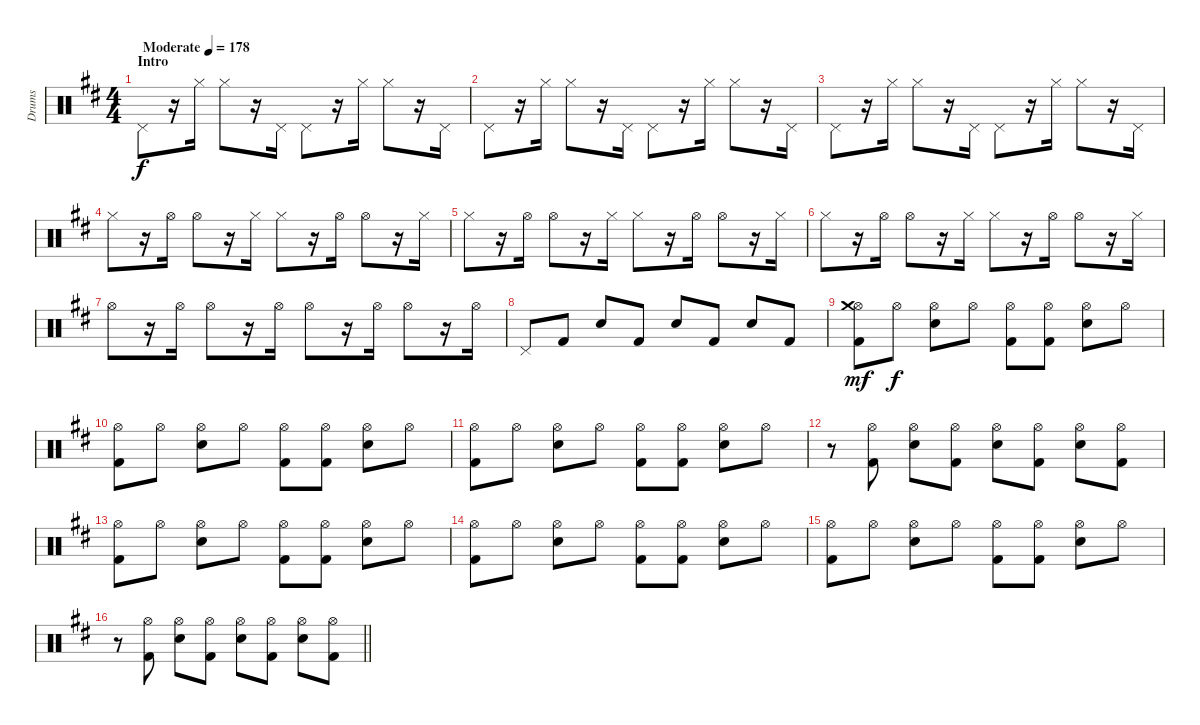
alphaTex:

\track ("Drums" "Drums") {instrument percussion}
\staff {score}
\articulation defaults
\ts (4 4)
\section ("" "Intro")
\tempo (178 "Moderate")
\clef neutral
\ks bminor "Pedal Hi-Hat (hit)".8{dy f}
r.16 "Hi-Hat (closed)".16 "Hi-Hat (closed)".8 r.16 "Pedal Hi-Hat (hit)".16 "Pedal Hi-Hat (hit)".8 r.16 "Hi-Hat (closed)".16 "Hi-Hat (closed)".8 r.16 "Pedal Hi-Hat (hit)".16 |
"Pedal Hi-Hat (hit)".8 r.16 "Hi-Hat (closed)".16 "Hi-Hat (closed)".8 r.16 "Pedal Hi-Hat (hit)".16 "Pedal Hi-Hat (hit)".8 r.16 "Hi-Hat (closed)".16 "Hi-Hat (closed)".8 r.16 "Pedal Hi-Hat (hit)".16 |
"Pedal Hi-Hat (hit)".8 r.16 "Hi-Hat (closed)".16 "Hi-Hat (closed)".8 r.16 "Pedal Hi-Hat (hit)".16 "Pedal Hi-Hat (hit)".8 r.16 "Hi-Hat (closed)".16 "Hi-Hat (closed)".8 r.16 "Pedal Hi-Hat (hit)".16 |
"Hi-Hat (closed)".8 r.16 "Hi-Hat (open)".16 "Hi-Hat (open)".8 r.16 "Hi-Hat (closed)".16 "Hi-Hat (closed)".8 r.16 "Hi-Hat (open)".16 "Hi-Hat (open)".8 r.16 "Hi-Hat (closed)".16 |
"Hi-Hat (closed)".8 r.16 "Hi-Hat (open)".16 "Hi-Hat (open)".8 r.16 "Hi-Hat (closed)".16 "Hi-Hat (closed)".8 r.16 "Hi-Hat (open)".16 "Hi-Hat (open)".8 r.16 "Hi-Hat (closed)".16 |
"Hi-Hat (closed)".8 r.16 "Hi-Hat (open)".16 "Hi-Hat (open)".8 r.16 "Hi-Hat (closed)".16 "Hi-Hat (closed)".8 r.16 "Hi-Hat (open)".16 "Hi-Hat (open)".8 r.16 "Hi-Hat (closed)".16 |
"Hi-Hat (open)".8 r.16 "Hi-Hat (open)".16 "Hi-Hat (open)".8 r.16 "Hi-Hat (open)".16 "Hi-Hat (open)".8 r.16 "Hi-Hat (open)".16 "Hi-Hat (open)".8 r.16 "Hi-Hat (open)".16 |
"Pedal Hi-Hat (hit)".8 "Kick (hit) 2".8 "Snare (hit) 2".8 "Kick (hit) 2".8 "Snare (hit) 2".8 "Kick (hit) 2".8 "Snare (hit) 2".8 "Kick (hit) 2".8 |
("Hi-Hat (open)" "Crash medium (hit)" "Kick (hit) 2").8{dy mf} "Hi-Hat (open)".8{dy f} ("Hi-Hat (open)" "Snare (hit) 2").8 "Hi-Hat (open)".8 ("Hi-Hat (open)" "Kick (hit) 2").8 ("Hi-Hat (open)" "Kick (hit) 2").8 ("Hi-Hat (open)" "Snare (hit) 2").8 "Hi-Hat (open)".8 |
("Hi-Hat (open)" "Kick (hit) 2").8 "Hi-Hat (open)".8 ("Hi-Hat (open)" "Snare (hit) 2").8 "Hi-Hat (open)".8 ("Hi-Hat (open)" "Kick (hit) 2").8 ("Hi-Hat (open)" "Kick (hit) 2").8 ("Hi-Hat (open)" "Snare (hit) 2").8 "Hi-Hat (open)".8 |
("Hi-Hat (open)" "Kick (hit) 2").8 "Hi-Hat (open)".8 ("Hi-Hat (open)" "Snare (hit) 2").8 "Hi-Hat (open)".8 ("Hi-Hat (open)" "Kick (hit) 2").8 ("Hi-Hat (open)" "Kick (hit) 2").8 ("Hi-Hat (open)" "Snare (hit) 2").8 "Hi-Hat (open)".8 |
r.8 ("Hi-Hat (open)" "Kick (hit) 2").8 ("Hi-Hat (open)" "Snare (hit) 2").8 ("Hi-Hat (open)" "Kick (hit) 2").8 ("Hi-Hat (open)" "Snare (hit) 2").8 ("Hi-Hat (open)" "Kick (hit) 2").8 ("Hi-Hat (open)" "Snare (hit) 2").8 ("Hi-Hat (open)" "Kick (hit) 2").8 |
("Hi-Hat (open)" "Kick (hit) 2").8 "Hi-Hat (open)".8 ("Hi-Hat (open)" "Snare (hit) 2").8 "Hi-Hat (open)".8 ("Hi-Hat (open)" "Kick (hit) 2").8 ("Hi-Hat (open)" "Kick (hit) 2").8 ("Hi-Hat (open)" "Snare (hit) 2").8 "Hi-Hat (open)".8 |
("Hi-Hat (open)" "Kick (hit) 2").8 "Hi-Hat (open)".8 ("Hi-Hat (open)" "Snare (hit) 2").8 "Hi-Hat (open)".8 ("Hi-Hat (open)" "Kick (hit) 2").8 ("Hi-Hat (open)" "Kick (hit) 2").8 ("Hi-Hat (open)" "Snare (hit) 2").8 "Hi-Hat (open)".8 |
("Hi-Hat (open)" "Kick (hit) 2").8 "Hi-Hat (open)".8 ("Hi-Hat (open)" "Snare (hit) 2").8 "Hi-Hat (open)".8 ("Hi-Hat (open)" "Kick (hit) 2").8 ("Hi-Hat (open)" "Kick (hit) 2").8 ("Hi-Hat (open)" "Snare (hit) 2").8 "Hi-Hat (open)".8 |
\barLineRight lightlight
r.8 ("Hi-Hat (open)" "Kick (hit) 2").8 ("Hi-Hat (open)" "Snare (hit) 2").8 ("Hi-Hat (open)" "Kick (hit) 2").8 ("Hi-Hat (open)" "Snare (hit) 2").8 ("Hi-Hat (open)" "Kick (hit) 2").8 ("Hi-Hat (open)" "Snare (hit) 2").8 ("Hi-Hat (open)" "Kick (hit) 2").8
